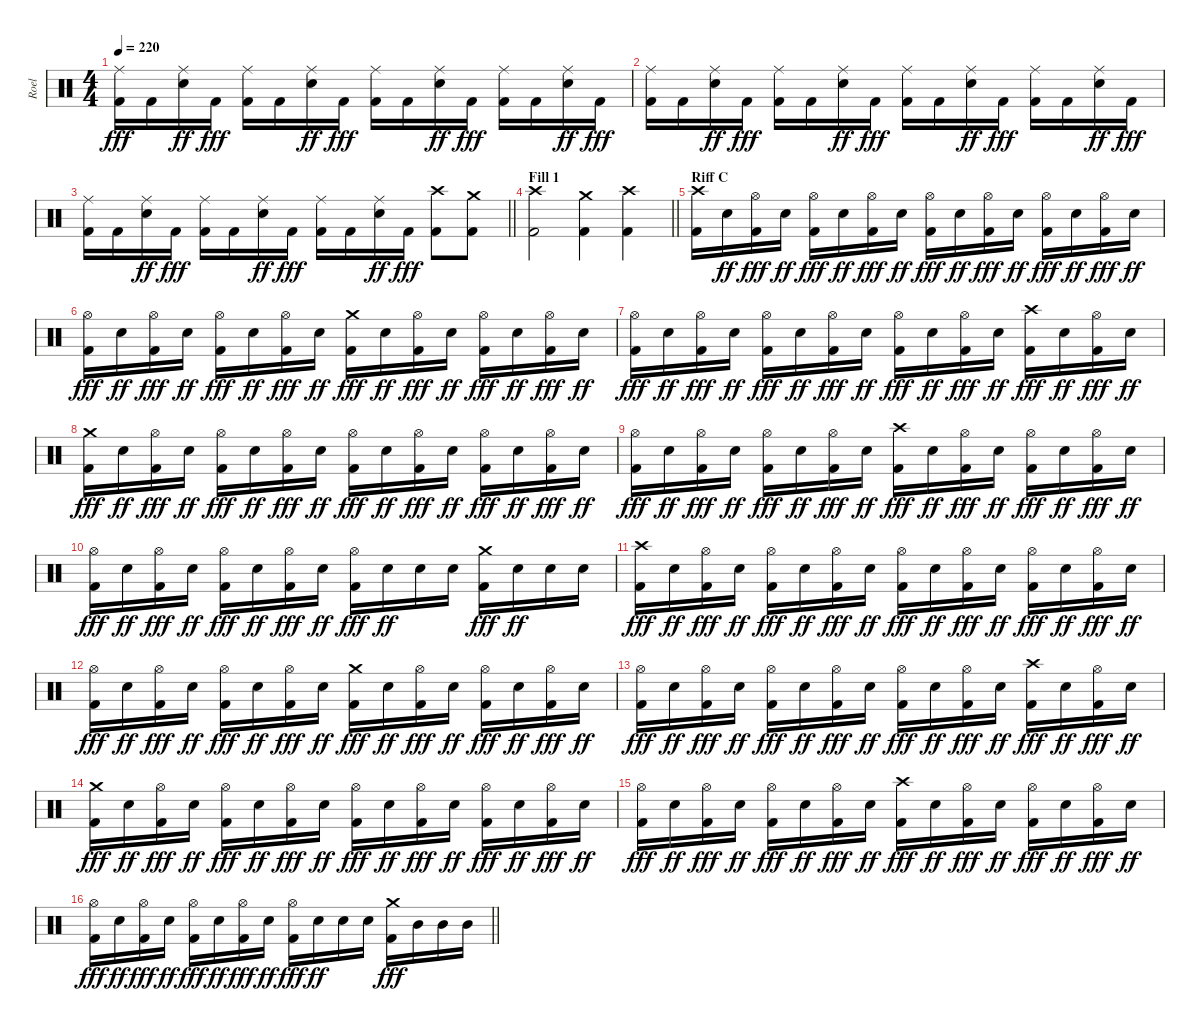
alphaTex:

\track ("Roel" "Roel") {instrument percussion}
\staff {score}
\articulation defaults
\ts (4 4)
\tempo 220
\clef neutral
\ks c
("Ride (middle)" "Kick (hit) 2").16{dy fff} "Kick (hit) 2".16 ("Ride (middle)" "Snare (hit) 2").16{dy ff} "Kick (hit) 2".16{dy fff} ("Ride (middle)" "Kick (hit) 2").16 "Kick (hit) 2".16 ("Ride (middle)" "Snare (hit) 2").16{dy ff} "Kick (hit) 2".16{dy fff} ("Ride (middle)" "Kick (hit) 2").16 "Kick (hit) 2".16 ("Ride (middle)" "Snare (hit) 2").16{dy ff} "Kick (hit) 2".16{dy fff} ("Ride (middle)" "Kick (hit) 2").16 "Kick (hit) 2".16 ("Ride (middle)" "Snare (hit) 2").16{dy ff} "Kick (hit) 2".16{dy fff} |
("Ride (middle)" "Kick (hit) 2").16 "Kick (hit) 2".16 ("Ride (middle)" "Snare (hit) 2").16{dy ff} "Kick (hit) 2".16{dy fff} ("Ride (middle)" "Kick (hit) 2").16 "Kick (hit) 2".16 ("Ride (middle)" "Snare (hit) 2").16{dy ff} "Kick (hit) 2".16{dy fff} ("Ride (middle)" "Kick (hit) 2").16 "Kick (hit) 2".16 ("Ride (middle)" "Snare (hit) 2").16{dy ff} "Kick (hit) 2".16{dy fff} ("Ride (middle)" "Kick (hit) 2").16 "Kick (hit) 2".16 ("Ride (middle)" "Snare (hit) 2").16{dy ff} "Kick (hit) 2".16{dy fff} |
\barLineRight lightlight
("Ride (middle)" "Kick (hit) 2").16 "Kick (hit) 2".16 ("Ride (middle)" "Snare (hit) 2").16{dy ff} "Kick (hit) 2".16{dy fff} ("Ride (middle)" "Kick (hit) 2").16 "Kick (hit) 2".16 ("Ride (middle)" "Snare (hit) 2").16{dy ff} "Kick (hit) 2".16{dy fff} ("Ride (middle)" "Kick (hit) 2").16 "Kick (hit) 2".16 ("Ride (middle)" "Snare (hit) 2").16{dy ff} "Kick (hit) 2".16{dy fff} ("Crash high (hit)" "Kick (hit) 2").8 ("Crash medium (hit)" "Kick (hit) 2").8 |
\section ("" "Fill 1")
\barLineRight lightlight
("Crash high (hit)" "Kick (hit) 2").2 ("Crash medium (hit)" "Kick (hit) 2").4 ("Crash high (hit)" "Kick (hit) 2").4 |
\section ("" "Riff C")
("Crash high (hit)" "Kick (hit) 2").16 "Snare (hit) 2".16{dy ff} ("Hi-Hat (open)" "Kick (hit) 2").16{dy fff} "Snare (hit) 2".16{dy ff} ("Hi-Hat (open)" "Kick (hit) 2").16{dy fff} "Snare (hit) 2".16{dy ff} ("Hi-Hat (open)" "Kick (hit) 2").16{dy fff} "Snare (hit) 2".16{dy ff} ("Hi-Hat (open)" "Kick (hit) 2").16{dy fff} "Snare (hit) 2".16{dy ff} ("Hi-Hat (open)" "Kick (hit) 2").16{dy fff} "Snare (hit) 2".16{dy ff} ("Hi-Hat (open)" "Kick (hit) 2").16{dy fff} "Snare (hit) 2".16{dy ff} ("Hi-Hat (open)" "Kick (hit) 2").16{dy fff} "Snare (hit) 2".16{dy ff} |
("Hi-Hat (open)" "Kick (hit) 2").16{dy fff} "Snare (hit) 2".16{dy ff} ("Hi-Hat (open)" "Kick (hit) 2").16{dy fff} "Snare (hit) 2".16{dy ff} ("Hi-Hat (open)" "Kick (hit) 2").16{dy fff} "Snare (hit) 2".16{dy ff} ("Hi-Hat (open)" "Kick (hit) 2").16{dy fff} "Snare (hit) 2".16{dy ff} ("Crash medium (hit)" "Kick (hit) 2").16{dy fff} "Snare (hit) 2".16{dy ff} ("Hi-Hat (open)" "Kick (hit) 2").16{dy fff} "Snare (hit) 2".16{dy ff} ("Hi-Hat (open)" "Kick (hit) 2").16{dy fff} "Snare (hit) 2".16{dy ff} ("Hi-Hat (open)" "Kick (hit) 2").16{dy fff} "Snare (hit) 2".16{dy ff} |
("Hi-Hat (open)" "Kick (hit) 2").16{dy fff} "Snare (hit) 2".16{dy ff} ("Hi-Hat (open)" "Kick (hit) 2").16{dy fff} "Snare (hit) 2".16{dy ff} ("Hi-Hat (open)" "Kick (hit) 2").16{dy fff} "Snare (hit) 2".16{dy ff} ("Hi-Hat (open)" "Kick (hit) 2").16{dy fff} "Snare (hit) 2".16{dy ff} ("Hi-Hat (open)" "Kick (hit) 2").16{dy fff} "Snare (hit) 2".16{dy ff} ("Hi-Hat (open)" "Kick (hit) 2").16{dy fff} "Snare (hit) 2".16{dy ff} ("Crash high (hit)" "Kick (hit) 2").16{dy fff} "Snare (hit) 2".16{dy ff} ("Hi-Hat (open)" "Kick (hit) 2").16{dy fff} "Snare (hit) 2".16{dy ff} |
("Crash medium (hit)" "Kick (hit) 2").16{dy fff} "Snare (hit) 2".16{dy ff} ("Hi-Hat (open)" "Kick (hit) 2").16{dy fff} "Snare (hit) 2".16{dy ff} ("Hi-Hat (open)" "Kick (hit) 2").16{dy fff} "Snare (hit) 2".16{dy ff} ("Hi-Hat (open)" "Kick (hit) 2").16{dy fff} "Snare (hit) 2".16{dy ff} ("Hi-Hat (open)" "Kick (hit) 2").16{dy fff} "Snare (hit) 2".16{dy ff} ("Hi-Hat (open)" "Kick (hit) 2").16{dy fff} "Snare (hit) 2".16{dy ff} ("Hi-Hat (open)" "Kick (hit) 2").16{dy fff} "Snare (hit) 2".16{dy ff} ("Hi-Hat (open)" "Kick (hit) 2").16{dy fff} "Snare (hit) 2".16{dy ff} |
("Hi-Hat (open)" "Kick (hit) 2").16{dy fff} "Snare (hit) 2".16{dy ff} ("Hi-Hat (open)" "Kick (hit) 2").16{dy fff} "Snare (hit) 2".16{dy ff} ("Hi-Hat (open)" "Kick (hit) 2").16{dy fff} "Snare (hit) 2".16{dy ff} ("Hi-Hat (open)" "Kick (hit) 2").16{dy fff} "Snare (hit) 2".16{dy ff} ("Crash high (hit)" "Kick (hit) 2").16{dy fff} "Snare (hit) 2".16{dy ff} ("Hi-Hat (open)" "Kick (hit) 2").16{dy fff} "Snare (hit) 2".16{dy ff} ("Hi-Hat (open)" "Kick (hit) 2").16{dy fff} "Snare (hit) 2".16{dy ff} ("Hi-Hat (open)" "Kick (hit) 2").16{dy fff} "Snare (hit) 2".16{dy ff} |
("Hi-Hat (open)" "Kick (hit) 2").16{dy fff} "Snare (hit) 2".16{dy ff} ("Hi-Hat (open)" "Kick (hit) 2").16{dy fff} "Snare (hit) 2".16{dy ff} ("Hi-Hat (open)" "Kick (hit) 2").16{dy fff} "Snare (hit) 2".16{dy ff} ("Hi-Hat (open)" "Kick (hit) 2").16{dy fff} "Snare (hit) 2".16{dy ff} ("Hi-Hat (open)" "Kick (hit) 2").16{dy fff} "Snare (hit) 2".16{dy ff} "Snare (hit) 2".16 "Snare (hit) 2".16 ("Crash medium (hit)" "Kick (hit) 2").16{dy fff} "Snare (hit) 2".16{dy ff} "Snare (hit) 2".16 "Snare (hit) 2".16 |
("Crash high (hit)" "Kick (hit) 2").16{dy fff} "Snare (hit) 2".16{dy ff} ("Hi-Hat (open)" "Kick (hit) 2").16{dy fff} "Snare (hit) 2".16{dy ff} ("Hi-Hat (open)" "Kick (hit) 2").16{dy fff} "Snare (hit) 2".16{dy ff} ("Hi-Hat (open)" "Kick (hit) 2").16{dy fff} "Snare (hit) 2".16{dy ff} ("Hi-Hat (open)" "Kick (hit) 2").16{dy fff} "Snare (hit) 2".16{dy ff} ("Hi-Hat (open)" "Kick (hit) 2").16{dy fff} "Snare (hit) 2".16{dy ff} ("Hi-Hat (open)" "Kick (hit) 2").16{dy fff} "Snare (hit) 2".16{dy ff} ("Hi-Hat (open)" "Kick (hit) 2").16{dy fff} "Snare (hit) 2".16{dy ff} |
("Hi-Hat (open)" "Kick (hit) 2").16{dy fff} "Snare (hit) 2".16{dy ff} ("Hi-Hat (open)" "Kick (hit) 2").16{dy fff} "Snare (hit) 2".16{dy ff} ("Hi-Hat (open)" "Kick (hit) 2").16{dy fff} "Snare (hit) 2".16{dy ff} ("Hi-Hat (open)" "Kick (hit) 2").16{dy fff} "Snare (hit) 2".16{dy ff} ("Crash medium (hit)" "Kick (hit) 2").16{dy fff} "Snare (hit) 2".16{dy ff} ("Hi-Hat (open)" "Kick (hit) 2").16{dy fff} "Snare (hit) 2".16{dy ff} ("Hi-Hat (open)" "Kick (hit) 2").16{dy fff} "Snare (hit) 2".16{dy ff} ("Hi-Hat (open)" "Kick (hit) 2").16{dy fff} "Snare (hit) 2".16{dy ff} |
("Hi-Hat (open)" "Kick (hit) 2").16{dy fff} "Snare (hit) 2".16{dy ff} ("Hi-Hat (open)" "Kick (hit) 2").16{dy fff} "Snare (hit) 2".16{dy ff} ("Hi-Hat (open)" "Kick (hit) 2").16{dy fff} "Snare (hit) 2".16{dy ff} ("Hi-Hat (open)" "Kick (hit) 2").16{dy fff} "Snare (hit) 2".16{dy ff} ("Hi-Hat (open)" "Kick (hit) 2").16{dy fff} "Snare (hit) 2".16{dy ff} ("Hi-Hat (open)" "Kick (hit) 2").16{dy fff} "Snare (hit) 2".16{dy ff} ("Crash high (hit)" "Kick (hit) 2").16{dy fff} "Snare (hit) 2".16{dy ff} ("Hi-Hat (open)" "Kick (hit) 2").16{dy fff} "Snare (hit) 2".16{dy ff} |
("Crash medium (hit)" "Kick (hit) 2").16{dy fff} "Snare (hit) 2".16{dy ff} ("Hi-Hat (open)" "Kick (hit) 2").16{dy fff} "Snare (hit) 2".16{dy ff} ("Hi-Hat (open)" "Kick (hit) 2").16{dy fff} "Snare (hit) 2".16{dy ff} ("Hi-Hat (open)" "Kick (hit) 2").16{dy fff} "Snare (hit) 2".16{dy ff} ("Hi-Hat (open)" "Kick (hit) 2").16{dy fff} "Snare (hit) 2".16{dy ff} ("Hi-Hat (open)" "Kick (hit) 2").16{dy fff} "Snare (hit) 2".16{dy ff} ("Hi-Hat (open)" "Kick (hit) 2").16{dy fff} "Snare (hit) 2".16{dy ff} ("Hi-Hat (open)" "Kick (hit) 2").16{dy fff} "Snare (hit) 2".16{dy ff} |
("Hi-Hat (open)" "Kick (hit) 2").16{dy fff} "Snare (hit) 2".16{dy ff} ("Hi-Hat (open)" "Kick (hit) 2").16{dy fff} "Snare (hit) 2".16{dy ff} ("Hi-Hat (open)" "Kick (hit) 2").16{dy fff} "Snare (hit) 2".16{dy ff} ("Hi-Hat (open)" "Kick (hit) 2").16{dy fff} "Snare (hit) 2".16{dy ff} ("Crash high (hit)" "Kick (hit) 2").16{dy fff} "Snare (hit) 2".16{dy ff} ("Hi-Hat (open)" "Kick (hit) 2").16{dy fff} "Snare (hit) 2".16{dy ff} ("Hi-Hat (open)" "Kick (hit) 2").16{dy fff} "Snare (hit) 2".16{dy ff} ("Hi-Hat (open)" "Kick (hit) 2").16{dy fff} "Snare (hit) 2".16{dy ff} |
\barLineRight lightlight
("Hi-Hat (open)" "Kick (hit) 2").16{dy fff} "Snare (hit) 2".16{dy ff} ("Hi-Hat (open)" "Kick (hit) 2").16{dy fff} "Snare (hit) 2".16{dy ff} ("Hi-Hat (open)" "Kick (hit) 2").16{dy fff} "Snare (hit) 2".16{dy ff} ("Hi-Hat (open)" "Kick (hit) 2").16{dy fff} "Snare (hit) 2".16{dy ff} ("Hi-Hat (open)" "Kick (hit) 2").16{dy fff} "Snare (hit) 2".16{dy ff} "Snare (hit) 2".16 "Snare (hit) 2".16 ("Crash medium (hit)" "Kick (hit) 2").16{dy fff} "Mid Tom (hit)".16 "Mid Tom (hit)".16 "Mid Tom (hit)".16
